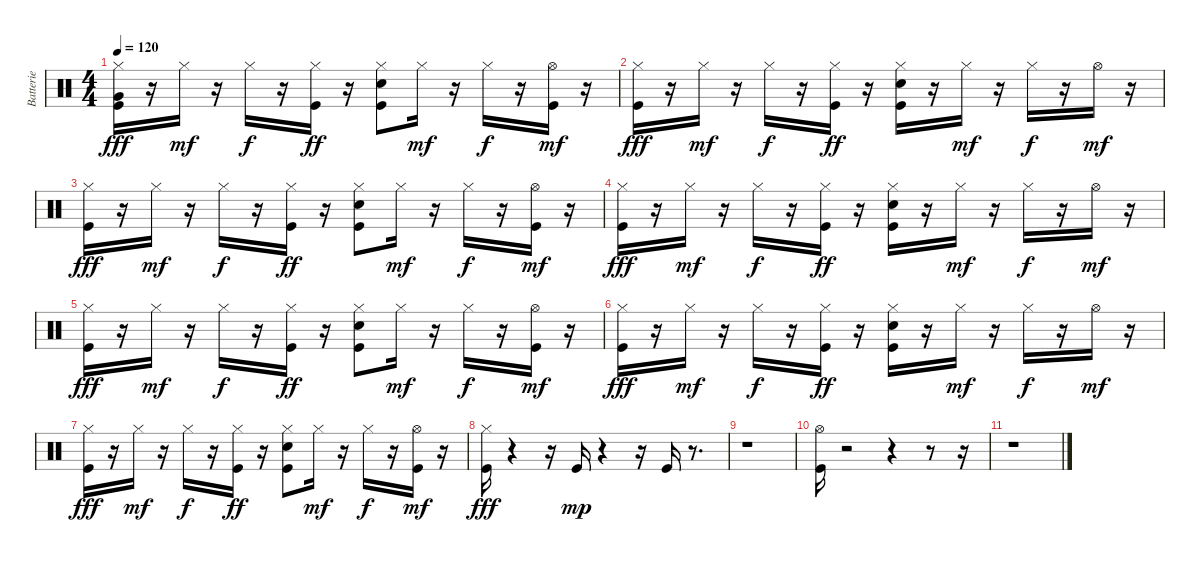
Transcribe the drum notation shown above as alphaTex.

\track ("Batterie" "Batterie") {instrument percussion}
\staff {score}
\articulation defaults
\ts (4 4)
\tempo 120
\clef neutral
\ks c
("Hi-Hat (closed)" "Kick (hit)" "Very Low Tom (hit)").16{dy fff} r.16 "Hi-Hat (closed)".16{dy mf} r.16 "Hi-Hat (closed)".16{dy f} r.16 ("Hi-Hat (closed)" "Kick (hit)").16{dy ff} r.16 ("Hi-Hat (closed)" "Kick (hit)" "Electric Snare (hit)").8 "Hi-Hat (closed)".16{dy mf} r.16 "Hi-Hat (closed)".16{dy f} r.16 ("Kick (hit)" "Hi-Hat (open)").16{dy mf} r.16 |
("Hi-Hat (closed)" "Kick (hit)").16{dy fff} r.16 "Hi-Hat (closed)".16{dy mf} r.16 "Hi-Hat (closed)".16{dy f} r.16 ("Hi-Hat (closed)" "Kick (hit)").16{dy ff} r.16 ("Hi-Hat (closed)" "Kick (hit)" "Electric Snare (hit)").16 r.16 "Hi-Hat (closed)".16{dy mf} r.16 "Hi-Hat (closed)".16{dy f} r.16 "Hi-Hat (open)".16{dy mf} r.16 |
("Hi-Hat (closed)" "Kick (hit)").16{dy fff} r.16 "Hi-Hat (closed)".16{dy mf} r.16 "Hi-Hat (closed)".16{dy f} r.16 ("Hi-Hat (closed)" "Kick (hit)").16{dy ff} r.16 ("Hi-Hat (closed)" "Kick (hit)" "Electric Snare (hit)").8 "Hi-Hat (closed)".16{dy mf} r.16 "Hi-Hat (closed)".16{dy f} r.16 ("Kick (hit)" "Hi-Hat (open)").16{dy mf} r.16 |
("Hi-Hat (closed)" "Kick (hit)").16{dy fff} r.16 "Hi-Hat (closed)".16{dy mf} r.16 "Hi-Hat (closed)".16{dy f} r.16 ("Hi-Hat (closed)" "Kick (hit)").16{dy ff} r.16 ("Hi-Hat (closed)" "Kick (hit)" "Electric Snare (hit)").16 r.16 "Hi-Hat (closed)".16{dy mf} r.16 "Hi-Hat (closed)".16{dy f} r.16 "Hi-Hat (open)".16{dy mf} r.16 |
("Hi-Hat (closed)" "Kick (hit)").16{dy fff} r.16 "Hi-Hat (closed)".16{dy mf} r.16 "Hi-Hat (closed)".16{dy f} r.16 ("Hi-Hat (closed)" "Kick (hit)").16{dy ff} r.16 ("Hi-Hat (closed)" "Kick (hit)" "Electric Snare (hit)").8 "Hi-Hat (closed)".16{dy mf} r.16 "Hi-Hat (closed)".16{dy f} r.16 ("Kick (hit)" "Hi-Hat (open)").16{dy mf} r.16 |
("Hi-Hat (closed)" "Kick (hit)").16{dy fff} r.16 "Hi-Hat (closed)".16{dy mf} r.16 "Hi-Hat (closed)".16{dy f} r.16 ("Hi-Hat (closed)" "Kick (hit)").16{dy ff} r.16 ("Hi-Hat (closed)" "Kick (hit)" "Electric Snare (hit)").16 r.16 "Hi-Hat (closed)".16{dy mf} r.16 "Hi-Hat (closed)".16{dy f} r.16 "Hi-Hat (open)".16{dy mf} r.16 |
("Hi-Hat (closed)" "Kick (hit)").16{dy fff} r.16 "Hi-Hat (closed)".16{dy mf} r.16 "Hi-Hat (closed)".16{dy f} r.16 ("Hi-Hat (closed)" "Kick (hit)").16{dy ff} r.16 ("Hi-Hat (closed)" "Kick (hit)" "Electric Snare (hit)").8 "Hi-Hat (closed)".16{dy mf} r.16 "Hi-Hat (closed)".16{dy f} r.16 ("Kick (hit)" "Hi-Hat (open)").16{dy mf} r.16 |
("Hi-Hat (closed)" "Kick (hit)").16{dy fff} r.4 r.16 "Kick (hit)".16{dy mp} r.4 r.16 "Kick (hit)".16 r.8{d} |
r.1 |
("Kick (hit)" "Hi-Hat (open)").16 r.2 r.4 r.8 r.16 |
r.1
